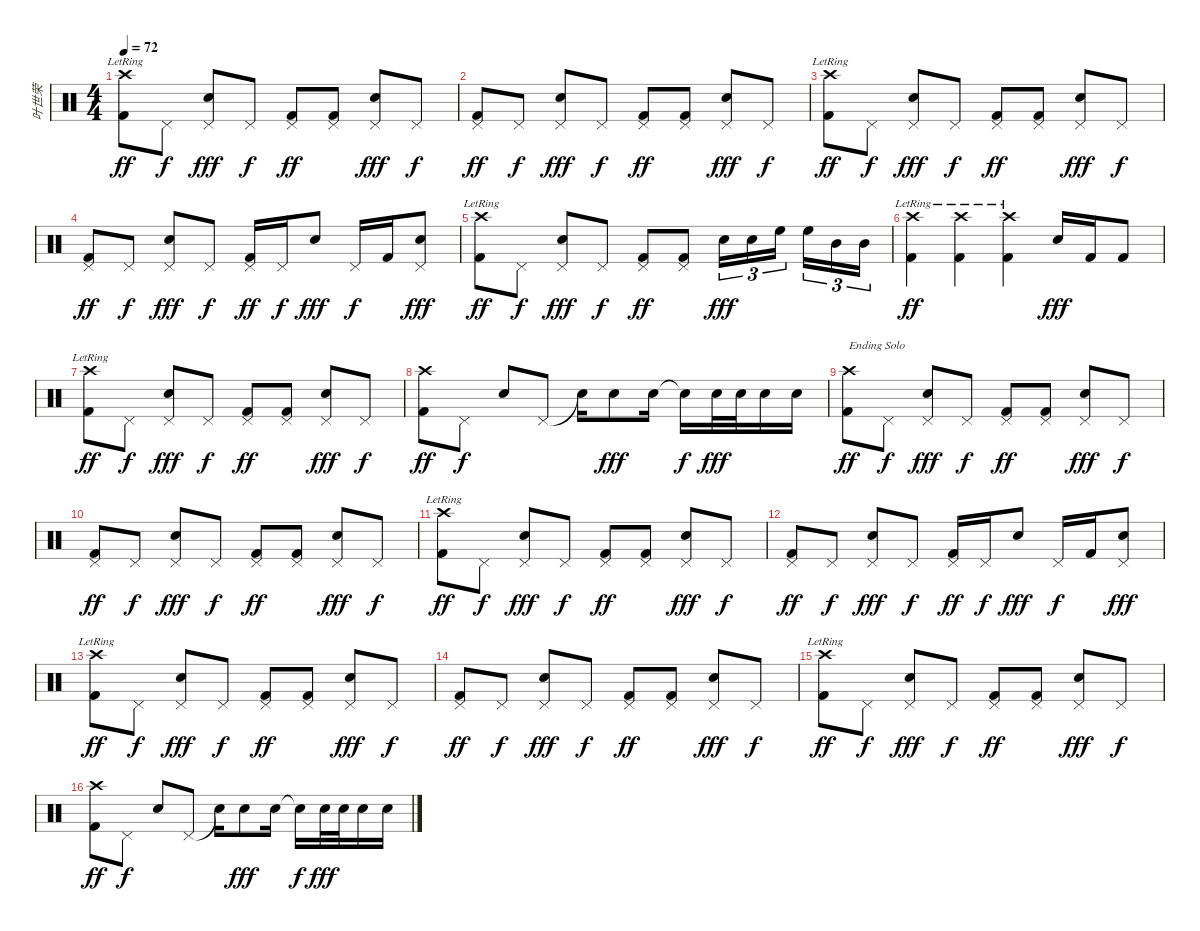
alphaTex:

\track ("叶世荣" "叶世荣") {instrument percussion}
\staff {score}
\articulation defaults
\ts (4 4)
\tempo 72
\clef neutral
\ks c
("Crash high (hit)"{lr} "Kick (hit) 2").8{dy ff} "Pedal Hi-Hat (hit)".8{dy f} ("Pedal Hi-Hat (hit)" "Electric Snare (hit)").8{dy fff} "Pedal Hi-Hat (hit)".8{dy f} ("Pedal Hi-Hat (hit)" "Kick (hit) 2").8{dy ff} ("Pedal Hi-Hat (hit)" "Kick (hit) 2").8 ("Pedal Hi-Hat (hit)" "Electric Snare (hit)").8{dy fff} "Pedal Hi-Hat (hit)".8{dy f} |
("Pedal Hi-Hat (hit)" "Kick (hit) 2").8{dy ff} "Pedal Hi-Hat (hit)".8{dy f} ("Pedal Hi-Hat (hit)" "Electric Snare (hit)").8{dy fff} "Pedal Hi-Hat (hit)".8{dy f} ("Pedal Hi-Hat (hit)" "Kick (hit) 2").8{dy ff} ("Pedal Hi-Hat (hit)" "Kick (hit) 2").8 ("Pedal Hi-Hat (hit)" "Electric Snare (hit)").8{dy fff} "Pedal Hi-Hat (hit)".8{dy f} |
("Crash high (hit)"{lr} "Kick (hit) 2").8{dy ff} "Pedal Hi-Hat (hit)".8{dy f} ("Pedal Hi-Hat (hit)" "Electric Snare (hit)").8{dy fff} "Pedal Hi-Hat (hit)".8{dy f} ("Pedal Hi-Hat (hit)" "Kick (hit) 2").8{dy ff} ("Pedal Hi-Hat (hit)" "Kick (hit) 2").8 ("Pedal Hi-Hat (hit)" "Electric Snare (hit)").8{dy fff} "Pedal Hi-Hat (hit)".8{dy f} |
("Pedal Hi-Hat (hit)" "Kick (hit) 2").8{dy ff} "Pedal Hi-Hat (hit)".8{dy f} ("Pedal Hi-Hat (hit)" "Electric Snare (hit)").8{dy fff} "Pedal Hi-Hat (hit)".8{dy f} ("Pedal Hi-Hat (hit)" "Kick (hit) 2").16{dy ff} "Pedal Hi-Hat (hit)".16{dy f} "Electric Snare (hit)".8{dy fff} "Pedal Hi-Hat (hit)".16{dy f} "Kick (hit) 2".16 ("Pedal Hi-Hat (hit)" "Electric Snare (hit)").8{dy fff} |
("Crash high (hit)"{lr} "Kick (hit) 2").8{dy ff} "Pedal Hi-Hat (hit)".8{dy f} ("Pedal Hi-Hat (hit)" "Electric Snare (hit)").8{dy fff} "Pedal Hi-Hat (hit)".8{dy f} ("Pedal Hi-Hat (hit)" "Kick (hit) 2").8{dy ff} ("Pedal Hi-Hat (hit)" "Kick (hit) 2").8 "Electric Snare (hit)".16{tu (3 2) dy fff} "Electric Snare (hit)".16{tu (3 2)} "High Floor Tom (hit)".16{tu (3 2) beam splitsecondary} "High Floor Tom (hit)".16{tu (3 2)} "Mid Tom (hit)".16{tu (3 2)} "Mid Tom (hit)".16{tu (3 2)} |
("Crash high (hit)"{lr} "Kick (hit) 2").4{dy ff} ("Crash high (hit)"{lr} "Kick (hit) 2").4 ("Crash high (hit)"{lr} "Kick (hit) 2").4 "Electric Snare (hit)".16{dy fff} "Kick (hit) 2".16 "Kick (hit) 2".8 |
("Crash high (hit)"{lr} "Kick (hit) 2").8{dy ff} "Pedal Hi-Hat (hit)".8{dy f} ("Pedal Hi-Hat (hit)" "Electric Snare (hit)").8{dy fff} "Pedal Hi-Hat (hit)".8{dy f} ("Pedal Hi-Hat (hit)" "Kick (hit) 2").8{dy ff} ("Pedal Hi-Hat (hit)" "Kick (hit) 2").8 ("Pedal Hi-Hat (hit)" "Electric Snare (hit)").8{dy fff} "Pedal Hi-Hat (hit)".8{dy f} |
("Crash high (hit)" "Kick (hit) 2").8{dy ff} "Pedal Hi-Hat (hit)".8{dy f} "Electric Snare (hit)".8 "Pedal Hi-Hat (hit)".8 "Snare (hit)"{t}.16 "Electric Snare (hit)".8{dy fff} "Electric Snare (hit)".16 "Snare (hit)"{t}.16{dy f} "Electric Snare (hit)".32{dy fff} "Electric Snare (hit)".32 "Electric Snare (hit)".16 "Electric Snare (hit)".16 |
("Crash high (hit)" "Kick (hit) 2").8{txt "Ending Solo" dy ff} "Pedal Hi-Hat (hit)".8{dy f} ("Pedal Hi-Hat (hit)" "Electric Snare (hit)").8{dy fff} "Pedal Hi-Hat (hit)".8{dy f} ("Pedal Hi-Hat (hit)" "Kick (hit) 2").8{dy ff} ("Pedal Hi-Hat (hit)" "Kick (hit) 2").8 ("Pedal Hi-Hat (hit)" "Electric Snare (hit)").8{dy fff} "Pedal Hi-Hat (hit)".8{dy f} |
("Pedal Hi-Hat (hit)" "Kick (hit) 2").8{dy ff} "Pedal Hi-Hat (hit)".8{dy f} ("Pedal Hi-Hat (hit)" "Electric Snare (hit)").8{dy fff} "Pedal Hi-Hat (hit)".8{dy f} ("Pedal Hi-Hat (hit)" "Kick (hit) 2").8{dy ff} ("Pedal Hi-Hat (hit)" "Kick (hit) 2").8 ("Pedal Hi-Hat (hit)" "Electric Snare (hit)").8{dy fff} "Pedal Hi-Hat (hit)".8{dy f} |
("Crash high (hit)"{lr} "Kick (hit) 2").8{dy ff} "Pedal Hi-Hat (hit)".8{dy f} ("Pedal Hi-Hat (hit)" "Electric Snare (hit)").8{dy fff} "Pedal Hi-Hat (hit)".8{dy f} ("Pedal Hi-Hat (hit)" "Kick (hit) 2").8{dy ff} ("Pedal Hi-Hat (hit)" "Kick (hit) 2").8 ("Pedal Hi-Hat (hit)" "Electric Snare (hit)").8{dy fff} "Pedal Hi-Hat (hit)".8{dy f} |
("Pedal Hi-Hat (hit)" "Kick (hit) 2").8{dy ff} "Pedal Hi-Hat (hit)".8{dy f} ("Pedal Hi-Hat (hit)" "Electric Snare (hit)").8{dy fff} "Pedal Hi-Hat (hit)".8{dy f} ("Pedal Hi-Hat (hit)" "Kick (hit) 2").16{dy ff} "Pedal Hi-Hat (hit)".16{dy f} "Electric Snare (hit)".8{dy fff} "Pedal Hi-Hat (hit)".16{dy f} "Kick (hit) 2".16 ("Pedal Hi-Hat (hit)" "Electric Snare (hit)").8{dy fff} |
("Crash high (hit)"{lr} "Kick (hit) 2").8{dy ff} "Pedal Hi-Hat (hit)".8{dy f} ("Pedal Hi-Hat (hit)" "Electric Snare (hit)").8{dy fff} "Pedal Hi-Hat (hit)".8{dy f} ("Pedal Hi-Hat (hit)" "Kick (hit) 2").8{dy ff} ("Pedal Hi-Hat (hit)" "Kick (hit) 2").8 ("Pedal Hi-Hat (hit)" "Electric Snare (hit)").8{dy fff} "Pedal Hi-Hat (hit)".8{dy f} |
("Pedal Hi-Hat (hit)" "Kick (hit) 2").8{dy ff} "Pedal Hi-Hat (hit)".8{dy f} ("Pedal Hi-Hat (hit)" "Electric Snare (hit)").8{dy fff} "Pedal Hi-Hat (hit)".8{dy f} ("Pedal Hi-Hat (hit)" "Kick (hit) 2").8{dy ff} ("Pedal Hi-Hat (hit)" "Kick (hit) 2").8 ("Pedal Hi-Hat (hit)" "Electric Snare (hit)").8{dy fff} "Pedal Hi-Hat (hit)".8{dy f} |
("Crash high (hit)"{lr} "Kick (hit) 2").8{dy ff} "Pedal Hi-Hat (hit)".8{dy f} ("Pedal Hi-Hat (hit)" "Electric Snare (hit)").8{dy fff} "Pedal Hi-Hat (hit)".8{dy f} ("Pedal Hi-Hat (hit)" "Kick (hit) 2").8{dy ff} ("Pedal Hi-Hat (hit)" "Kick (hit) 2").8 ("Pedal Hi-Hat (hit)" "Electric Snare (hit)").8{dy fff} "Pedal Hi-Hat (hit)".8{dy f} |
("Crash high (hit)" "Kick (hit) 2").8{dy ff} "Pedal Hi-Hat (hit)".8{dy f} "Electric Snare (hit)".8 "Pedal Hi-Hat (hit)".8 "Snare (hit)"{t}.16 "Electric Snare (hit)".8{dy fff} "Electric Snare (hit)".16 "Snare (hit)"{t}.16{dy f} "Electric Snare (hit)".32{dy fff} "Electric Snare (hit)".32 "Electric Snare (hit)".16 "Electric Snare (hit)".16
